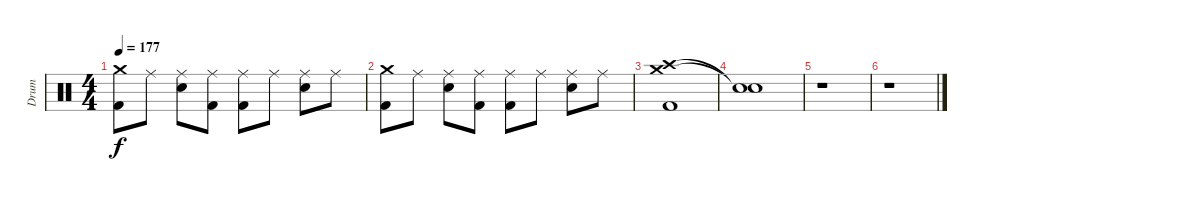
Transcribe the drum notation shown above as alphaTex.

\track ("Drum" "Drum") {instrument percussion}
\staff {score}
\articulation defaults
\ts (4 4)
\tempo 177
\clef neutral
\ks c
("Crash medium (hit)" "Kick (hit) 2").8{dy f} "Ride (middle)".8 ("Ride (middle)" "Electric Snare (hit)").8 ("Ride (middle)" "Kick (hit) 2").8 ("Ride (middle)" "Kick (hit) 2").8 "Ride (middle)".8 ("Ride (middle)" "Electric Snare (hit)").8 "Ride (middle)".8 |
("Crash medium (hit)" "Kick (hit) 2").8 "Ride (middle)".8 ("Ride (middle)" "Electric Snare (hit)").8 ("Ride (middle)" "Kick (hit) 2").8 ("Ride (middle)" "Kick (hit) 2").8 "Ride (middle)".8 ("Ride (middle)" "Electric Snare (hit)").8 "Ride (middle)".8 |
("Crash medium (hit)" "Crash high (hit)" "Kick (hit) 2").1 |
("Snare (hit)"{t} "Snare (hit)"{t}).1 |
r.1 |
r.1
